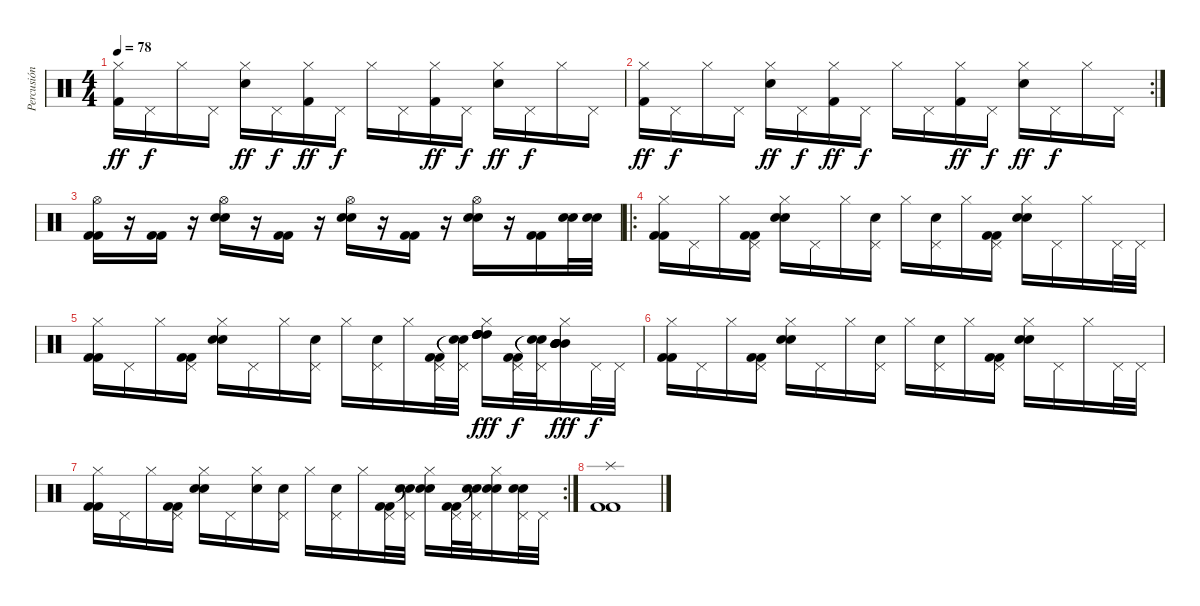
\track ("Percusión" "Percusión") {instrument percussion}
\staff {score}
\articulation defaults
\ts (4 4)
\tempo 78
\clef neutral
\ks c
("Hi-Hat (closed)" "Kick (hit) 2").16{dy ff} "Pedal Hi-Hat (hit)".16{dy f} "Hi-Hat (closed)".16 "Pedal Hi-Hat (hit)".16 ("Hi-Hat (closed)" "Electric Snare (hit)").16{dy ff} "Pedal Hi-Hat (hit)".16{dy f} ("Hi-Hat (closed)" "Kick (hit) 2").16{dy ff} "Pedal Hi-Hat (hit)".16{dy f} "Hi-Hat (closed)".16 "Pedal Hi-Hat (hit)".16 ("Hi-Hat (closed)" "Kick (hit) 2").16{dy ff} "Pedal Hi-Hat (hit)".16{dy f} ("Hi-Hat (closed)" "Electric Snare (hit)").16{dy ff} "Pedal Hi-Hat (hit)".16{dy f} "Hi-Hat (closed)".16 "Pedal Hi-Hat (hit)".16 |
\rc 2
("Hi-Hat (closed)" "Kick (hit) 2").16{dy ff} "Pedal Hi-Hat (hit)".16{dy f} "Hi-Hat (closed)".16 "Pedal Hi-Hat (hit)".16 ("Hi-Hat (closed)" "Electric Snare (hit)").16{dy ff} "Pedal Hi-Hat (hit)".16{dy f} ("Hi-Hat (closed)" "Kick (hit) 2").16{dy ff} "Pedal Hi-Hat (hit)".16{dy f} "Hi-Hat (closed)".16 "Pedal Hi-Hat (hit)".16 ("Hi-Hat (closed)" "Kick (hit) 2").16{dy ff} "Pedal Hi-Hat (hit)".16{dy f} ("Hi-Hat (closed)" "Electric Snare (hit)").16{dy ff} "Pedal Hi-Hat (hit)".16{dy f} "Hi-Hat (closed)".16 "Pedal Hi-Hat (hit)".16 |
("Hi-Hat (open)" "Kick (hit) 2" "Kick (hit) 2").16 r.16 ("Kick (hit) 2" "Kick (hit) 2").16 r.16 ("Hi-Hat (open)" "Electric Snare (hit)" "Electric Snare (hit)").16 r.16 ("Kick (hit) 2" "Kick (hit) 2").16 r.16 ("Hi-Hat (open)" "Electric Snare (hit)" "Electric Snare (hit)").16 r.16 ("Kick (hit) 2" "Kick (hit) 2").16 r.16 ("Hi-Hat (open)" "Electric Snare (hit)" "Electric Snare (hit)").16 r.16 ("Kick (hit) 2" "Kick (hit) 2").16 ("Electric Snare (hit)" "Electric Snare (hit)").32 ("Electric Snare (hit)" "Electric Snare (hit)").32 |
\ro
("Hi-Hat (closed)" "Kick (hit) 2" "Kick (hit) 2").16 "Pedal Hi-Hat (hit)".16 "Hi-Hat (closed)".16 ("Pedal Hi-Hat (hit)" "Kick (hit) 2" "Kick (hit) 2").16 ("Hi-Hat (closed)" "Electric Snare (hit)" "Electric Snare (hit)").16 "Pedal Hi-Hat (hit)".16 "Hi-Hat (closed)".16 ("Pedal Hi-Hat (hit)" "Electric Snare (hit)").16 "Hi-Hat (closed)".16 ("Pedal Hi-Hat (hit)" "Electric Snare (hit)").16 "Hi-Hat (closed)".16 ("Pedal Hi-Hat (hit)" "Kick (hit) 2" "Kick (hit) 2").16 ("Hi-Hat (closed)" "Electric Snare (hit)" "Electric Snare (hit)").16 "Pedal Hi-Hat (hit)".16 "Hi-Hat (closed)".16 "Pedal Hi-Hat (hit)".32 "Pedal Hi-Hat (hit)".32 |
("Hi-Hat (closed)" "Kick (hit) 2" "Kick (hit) 2").16 "Pedal Hi-Hat (hit)".16 "Hi-Hat (closed)".16 ("Pedal Hi-Hat (hit)" "Kick (hit) 2" "Kick (hit) 2").16 ("Hi-Hat (closed)" "Electric Snare (hit)" "Electric Snare (hit)").16 "Pedal Hi-Hat (hit)".16 "Hi-Hat (closed)".16 ("Pedal Hi-Hat (hit)" "Electric Snare (hit)").16 "Hi-Hat (closed)".16 ("Pedal Hi-Hat (hit)" "Electric Snare (hit)").16 "Hi-Hat (closed)".16 ("Pedal Hi-Hat (hit)" "Kick (hit) 2" "Kick (hit) 2").32 ("Pedal Hi-Hat (hit)" "Snare (hit)"{t} "Snare (hit)"{t}).32 ("Hi-Hat (closed)" "High Tom (hit)" "High Tom (hit)" "High Tom (hit)" "High Tom (hit)" "High Tom (hit)").16{dy fff} ("Pedal Hi-Hat (hit)" "Kick (hit) 2" "Kick (hit) 2").32{dy f} ("Pedal Hi-Hat (hit)" "Snare (hit)"{t} "Snare (hit)"{t}).32 ("Hi-Hat (closed)" "Mid Tom (hit)" "Mid Tom (hit)" "Mid Tom (hit)" "Mid Tom (hit)" "Mid Tom (hit)").16{dy fff} "Pedal Hi-Hat (hit)".32{dy f} "Pedal Hi-Hat (hit)".32 |
("Hi-Hat (closed)" "Kick (hit) 2" "Kick (hit) 2").16 "Pedal Hi-Hat (hit)".16 "Hi-Hat (closed)".16 ("Pedal Hi-Hat (hit)" "Kick (hit) 2" "Kick (hit) 2").16 ("Hi-Hat (closed)" "Electric Snare (hit)" "Electric Snare (hit)").16 "Pedal Hi-Hat (hit)".16 "Hi-Hat (closed)".16 ("Pedal Hi-Hat (hit)" "Electric Snare (hit)").16 "Hi-Hat (closed)".16 ("Pedal Hi-Hat (hit)" "Electric Snare (hit)").16 "Hi-Hat (closed)".16 ("Pedal Hi-Hat (hit)" "Kick (hit) 2" "Kick (hit) 2").16 ("Hi-Hat (closed)" "Electric Snare (hit)" "Electric Snare (hit)").16 "Pedal Hi-Hat (hit)".16 "Hi-Hat (closed)".16 "Pedal Hi-Hat (hit)".32 "Pedal Hi-Hat (hit)".32 |
\rc 2
("Hi-Hat (closed)" "Kick (hit) 2" "Kick (hit) 2").16 "Pedal Hi-Hat (hit)".16 "Hi-Hat (closed)".16 ("Pedal Hi-Hat (hit)" "Kick (hit) 2" "Kick (hit) 2").16 ("Hi-Hat (closed)" "Electric Snare (hit)" "Electric Snare (hit)").16 "Pedal Hi-Hat (hit)".16 ("Hi-Hat (closed)" "Electric Snare (hit)").16 ("Pedal Hi-Hat (hit)" "Electric Snare (hit)").16 "Hi-Hat (closed)".16 ("Pedal Hi-Hat (hit)" "Electric Snare (hit)").16 "Hi-Hat (closed)".16 ("Pedal Hi-Hat (hit)" "Kick (hit) 2" "Kick (hit) 2").32 ("Pedal Hi-Hat (hit)" "Snare (hit)"{t} "Snare (hit)"{t}).32 ("Hi-Hat (closed)" "Electric Snare (hit)" "Electric Snare (hit)").16 ("Pedal Hi-Hat (hit)" "Kick (hit) 2" "Kick (hit) 2").32 ("Pedal Hi-Hat (hit)" "Snare (hit)"{t} "Snare (hit)"{t}).32 ("Hi-Hat (closed)" "Electric Snare (hit)" "Electric Snare (hit)").16 ("Pedal Hi-Hat (hit)" "Electric Snare (hit)" "Electric Snare (hit)").32 "Pedal Hi-Hat (hit)".32 |
("Splash (hit)" "Kick (hit) 2" "Kick (hit) 2").1
